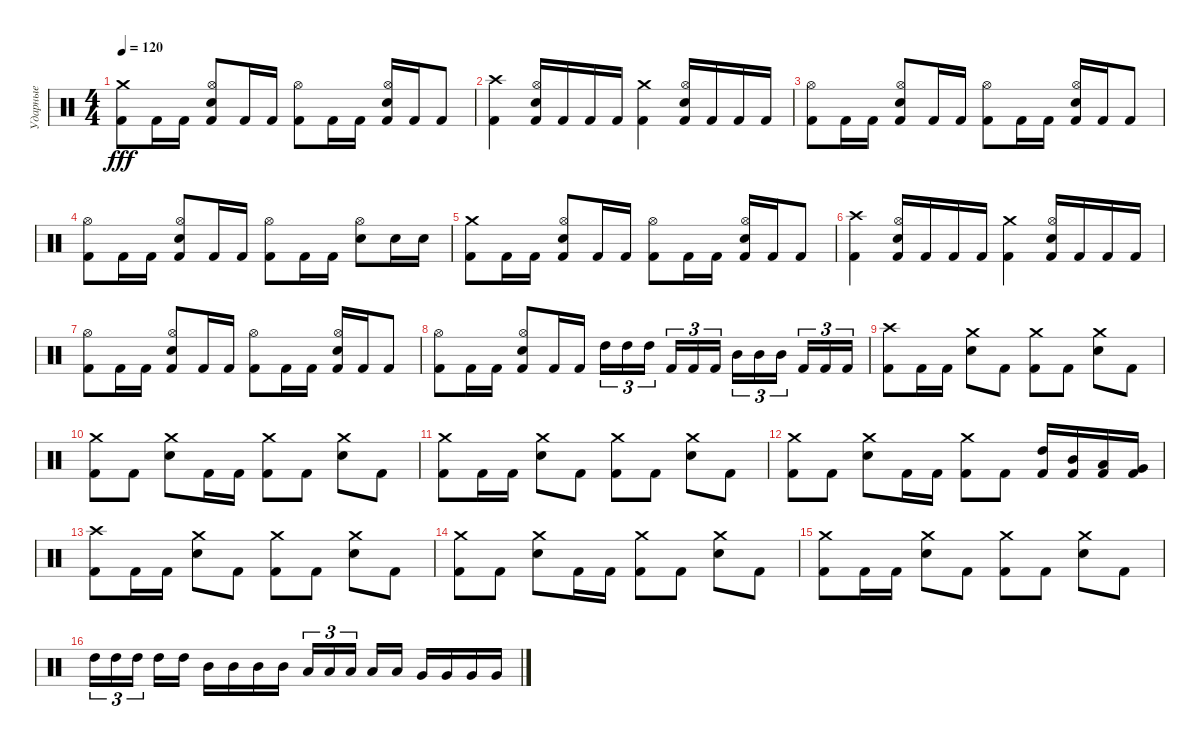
\track ("Ударные" "Ударные") {instrument percussion}
\staff {score}
\articulation defaults
\ts (4 4)
\tempo 120
\clef neutral
\ks c
("Crash medium (hit)" "Kick (hit) 2").8{dy fff} "Kick (hit) 2".16 "Kick (hit) 2".16 ("Hi-Hat (open)" "Electric Snare (hit)" "Kick (hit) 2").8 "Kick (hit) 2".16 "Kick (hit) 2".16 ("Hi-Hat (open)" "Kick (hit) 2").8 "Kick (hit) 2".16 "Kick (hit) 2".16 ("Hi-Hat (open)" "Electric Snare (hit)" "Kick (hit) 2").16 "Kick (hit) 2".16 "Kick (hit) 2".8 |
("Crash high (hit)" "Kick (hit) 2").4 ("Hi-Hat (open)" "Electric Snare (hit)" "Kick (hit) 2").16 "Kick (hit) 2".16 "Kick (hit) 2".16 "Kick (hit) 2".16 ("Crash medium (hit)" "Kick (hit) 2").4 ("Hi-Hat (open)" "Electric Snare (hit)" "Kick (hit) 2").16 "Kick (hit) 2".16 "Kick (hit) 2".16 "Kick (hit) 2".16 |
("Hi-Hat (open)" "Kick (hit) 2").8 "Kick (hit) 2".16 "Kick (hit) 2".16 ("Hi-Hat (open)" "Electric Snare (hit)" "Kick (hit) 2").8 "Kick (hit) 2".16 "Kick (hit) 2".16 ("Hi-Hat (open)" "Kick (hit) 2").8 "Kick (hit) 2".16 "Kick (hit) 2".16 ("Hi-Hat (open)" "Electric Snare (hit)" "Kick (hit) 2").16 "Kick (hit) 2".16 "Kick (hit) 2".8 |
("Hi-Hat (open)" "Kick (hit) 2").8 "Kick (hit) 2".16 "Kick (hit) 2".16 ("Hi-Hat (open)" "Electric Snare (hit)" "Kick (hit) 2").8 "Kick (hit) 2".16 "Kick (hit) 2".16 ("Hi-Hat (open)" "Kick (hit) 2").8 "Kick (hit) 2".16 "Kick (hit) 2".16 ("Hi-Hat (open)" "Electric Snare (hit)").8 "Electric Snare (hit)".16 "Electric Snare (hit)".16 |
("Crash medium (hit)" "Kick (hit) 2").8 "Kick (hit) 2".16 "Kick (hit) 2".16 ("Hi-Hat (open)" "Electric Snare (hit)" "Kick (hit) 2").8 "Kick (hit) 2".16 "Kick (hit) 2".16 ("Hi-Hat (open)" "Kick (hit) 2").8 "Kick (hit) 2".16 "Kick (hit) 2".16 ("Hi-Hat (open)" "Electric Snare (hit)" "Kick (hit) 2").16 "Kick (hit) 2".16 "Kick (hit) 2".8 |
("Crash high (hit)" "Kick (hit) 2").4 ("Hi-Hat (open)" "Electric Snare (hit)" "Kick (hit) 2").16 "Kick (hit) 2".16 "Kick (hit) 2".16 "Kick (hit) 2".16 ("Crash medium (hit)" "Kick (hit) 2").4 ("Hi-Hat (open)" "Electric Snare (hit)" "Kick (hit) 2").16 "Kick (hit) 2".16 "Kick (hit) 2".16 "Kick (hit) 2".16 |
("Hi-Hat (open)" "Kick (hit) 2").8 "Kick (hit) 2".16 "Kick (hit) 2".16 ("Hi-Hat (open)" "Electric Snare (hit)" "Kick (hit) 2").8 "Kick (hit) 2".16 "Kick (hit) 2".16 ("Hi-Hat (open)" "Kick (hit) 2").8 "Kick (hit) 2".16 "Kick (hit) 2".16 ("Hi-Hat (open)" "Electric Snare (hit)" "Kick (hit) 2").16 "Kick (hit) 2".16 "Kick (hit) 2".8 |
("Hi-Hat (open)" "Kick (hit) 2").8 "Kick (hit) 2".16 "Kick (hit) 2".16 ("Hi-Hat (open)" "Electric Snare (hit)" "Kick (hit) 2").8 "Kick (hit) 2".16 "Kick (hit) 2".16 "High Tom (hit)".16{tu (3 2)} "High Tom (hit)".16{tu (3 2)} "High Tom (hit)".16{tu (3 2) beam splitsecondary} "Kick (hit) 2".16{tu (3 2)} "Kick (hit) 2".16{tu (3 2)} "Kick (hit) 2".16{tu (3 2)} "Mid Tom (hit)".16{tu (3 2)} "Mid Tom (hit)".16{tu (3 2)} "Mid Tom (hit)".16{tu (3 2) beam splitsecondary} "Kick (hit) 2".16{tu (3 2)} "Kick (hit) 2".16{tu (3 2)} "Kick (hit) 2".16{tu (3 2)} |
("Crash high (hit)" "Kick (hit) 2").8 "Kick (hit) 2".16 "Kick (hit) 2".16 ("Crash medium (hit)" "Electric Snare (hit)").8 "Kick (hit) 2".8 ("Crash medium (hit)" "Kick (hit) 2").8 "Kick (hit) 2".8 ("Crash medium (hit)" "Electric Snare (hit)").8 "Kick (hit) 2".8 |
("Crash medium (hit)" "Kick (hit) 2").8 "Kick (hit) 2".8 ("Crash medium (hit)" "Electric Snare (hit)").8 "Kick (hit) 2".16 "Kick (hit) 2".16 ("Crash medium (hit)" "Kick (hit) 2").8 "Kick (hit) 2".8 ("Crash medium (hit)" "Electric Snare (hit)").8 "Kick (hit) 2".8 |
("Crash medium (hit)" "Kick (hit) 2").8 "Kick (hit) 2".16 "Kick (hit) 2".16 ("Crash medium (hit)" "Electric Snare (hit)").8 "Kick (hit) 2".8 ("Crash medium (hit)" "Kick (hit) 2").8 "Kick (hit) 2".8 ("Crash medium (hit)" "Electric Snare (hit)").8 "Kick (hit) 2".8 |
("Crash medium (hit)" "Kick (hit) 2").8 "Kick (hit) 2".8 ("Crash medium (hit)" "Electric Snare (hit)").8 "Kick (hit) 2".16 "Kick (hit) 2".16 ("Crash medium (hit)" "Kick (hit) 2").8 "Kick (hit) 2".8 ("High Tom (hit)" "Kick (hit) 2").16 ("Mid Tom (hit)" "Kick (hit) 2").16 ("Low Tom (hit)" "Kick (hit) 2").16 ("Very Low Tom (hit)" "Kick (hit) 2").16 |
("Crash high (hit)" "Kick (hit) 2").8 "Kick (hit) 2".16 "Kick (hit) 2".16 ("Crash medium (hit)" "Electric Snare (hit)").8 "Kick (hit) 2".8 ("Crash medium (hit)" "Kick (hit) 2").8 "Kick (hit) 2".8 ("Crash medium (hit)" "Electric Snare (hit)").8 "Kick (hit) 2".8 |
("Crash medium (hit)" "Kick (hit) 2").8 "Kick (hit) 2".8 ("Crash medium (hit)" "Electric Snare (hit)").8 "Kick (hit) 2".16 "Kick (hit) 2".16 ("Crash medium (hit)" "Kick (hit) 2").8 "Kick (hit) 2".8 ("Crash medium (hit)" "Electric Snare (hit)").8 "Kick (hit) 2".8 |
("Crash medium (hit)" "Kick (hit) 2").8 "Kick (hit) 2".16 "Kick (hit) 2".16 ("Crash medium (hit)" "Electric Snare (hit)").8 "Kick (hit) 2".8 ("Crash medium (hit)" "Kick (hit) 2").8 "Kick (hit) 2".8 ("Crash medium (hit)" "Electric Snare (hit)").8 "Kick (hit) 2".8 |
"High Tom (hit)".16{tu (3 2)} "High Tom (hit)".16{tu (3 2)} "High Tom (hit)".16{tu (3 2) beam splitsecondary} "High Tom (hit)".16 "High Tom (hit)".16 "Mid Tom (hit)".16 "Mid Tom (hit)".16 "Mid Tom (hit)".16 "Mid Tom (hit)".16 "Low Tom (hit)".16{tu (3 2)} "Low Tom (hit)".16{tu (3 2)} "Low Tom (hit)".16{tu (3 2) beam splitsecondary} "Low Tom (hit)".16 "Low Tom (hit)".16 "Very Low Tom (hit)".16 "Very Low Tom (hit)".16 "Very Low Tom (hit)".16 "Very Low Tom (hit)".16
